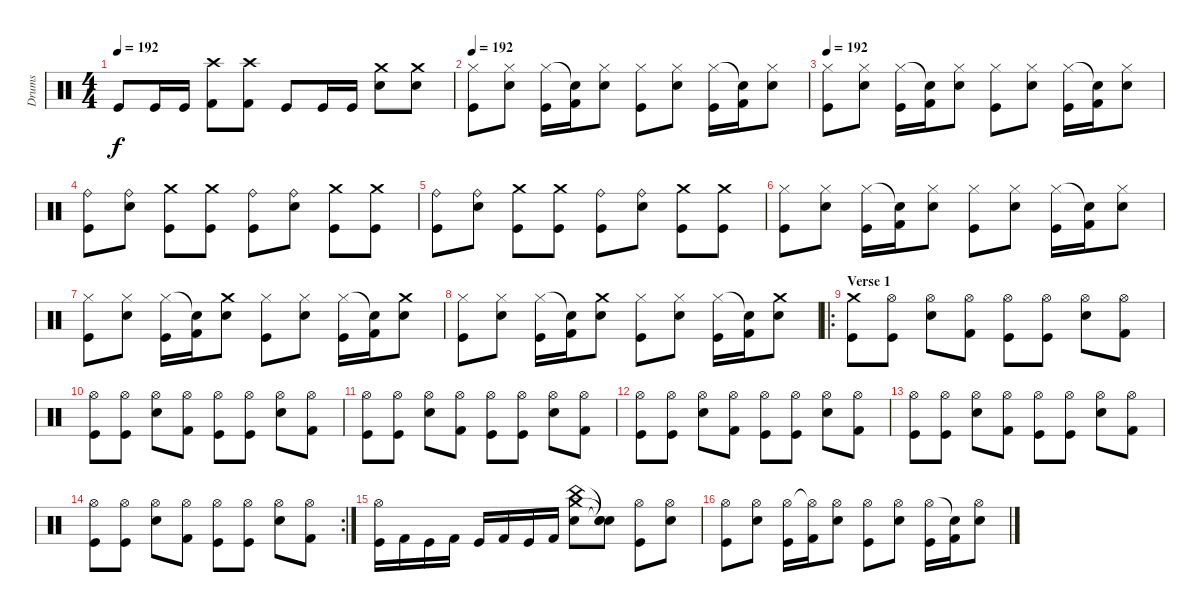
\track ("Drums" "Drums") {instrument percussion}
\staff {score}
\articulation defaults
\ts (4 4)
\tempo 192
\clef neutral
\ks c "Kick (hit)".8{dy f} "Kick (hit)".16 "Kick (hit)".16
("Crash high (hit)" "Kick (hit) 2").8 ("Crash high (hit)" "Kick (hit) 2").8 "Kick (hit)".8 "Kick (hit)".16 "Kick (hit)".16 ("Crash medium (hit)" "Electric Snare (hit)").8 ("Crash medium (hit)" "Electric Snare (hit)").8 |
\tempo 192
("Hi-Hat (closed)" "Kick (hit)").8 ("Hi-Hat (closed)" "Electric Snare (hit)").8 ("Hi-Hat (closed)" "Kick (hit)").16 ("Snare (hit)"{t} "Kick (hit) 2").16 ("Hi-Hat (closed)" "Electric Snare (hit)").8 ("Hi-Hat (closed)" "Kick (hit)").8 ("Hi-Hat (closed)" "Electric Snare (hit)").8 ("Hi-Hat (closed)" "Kick (hit)").16 ("Snare (hit)"{t} "Kick (hit) 2").16 ("Hi-Hat (closed)" "Electric Snare (hit)").8 |
\tempo 192
("Hi-Hat (closed)" "Kick (hit)").8 ("Hi-Hat (closed)" "Electric Snare (hit)").8 ("Hi-Hat (closed)" "Kick (hit)").16 ("Snare (hit)"{t} "Kick (hit) 2").16 ("Hi-Hat (closed)" "Electric Snare (hit)").8 ("Hi-Hat (closed)" "Kick (hit)").8 ("Hi-Hat (closed)" "Electric Snare (hit)").8 ("Hi-Hat (closed)" "Kick (hit)").16 ("Snare (hit)"{t} "Kick (hit) 2").16 ("Hi-Hat (closed)" "Electric Snare (hit)").8 |
("Ride (bell)" "Kick (hit)").8 ("Ride (bell)" "Electric Snare (hit)").8 ("Crash medium (hit)" "Kick (hit)").8 ("Crash medium (hit)" "Kick (hit)").8 ("Ride (bell)" "Kick (hit)").8 ("Ride (bell)" "Electric Snare (hit)").8 ("Crash medium (hit)" "Kick (hit)").8 ("Crash medium (hit)" "Kick (hit)").8 |
("Ride (bell)" "Kick (hit)").8 ("Ride (bell)" "Electric Snare (hit)").8 ("Crash medium (hit)" "Kick (hit)").8 ("Crash medium (hit)" "Kick (hit)").8 ("Ride (bell)" "Kick (hit)").8 ("Ride (bell)" "Electric Snare (hit)").8 ("Crash medium (hit)" "Kick (hit)").8 ("Crash medium (hit)" "Kick (hit)").8 |
("Hi-Hat (closed)" "Kick (hit)").8 ("Hi-Hat (closed)" "Electric Snare (hit)").8 ("Hi-Hat (closed)" "Kick (hit)").16 ("Snare (hit)"{t} "Kick (hit) 2").16 ("Hi-Hat (closed)" "Electric Snare (hit)").8 ("Hi-Hat (closed)" "Kick (hit)").8 ("Hi-Hat (closed)" "Electric Snare (hit)").8 ("Hi-Hat (closed)" "Kick (hit)").16 ("Snare (hit)"{t} "Kick (hit) 2").16 ("Hi-Hat (closed)" "Electric Snare (hit)").8 |
("Hi-Hat (closed)" "Kick (hit)").8 ("Hi-Hat (closed)" "Electric Snare (hit)").8 ("Hi-Hat (closed)" "Kick (hit)").16 ("Snare (hit)"{t} "Kick (hit) 2").16 ("Crash medium (hit)" "Electric Snare (hit)").8 ("Hi-Hat (closed)" "Kick (hit)").8 ("Hi-Hat (closed)" "Electric Snare (hit)").8 ("Hi-Hat (closed)" "Kick (hit)").16 ("Snare (hit)"{t} "Kick (hit) 2").16 ("Crash medium (hit)" "Electric Snare (hit)").8 |
("Hi-Hat (closed)" "Kick (hit)").8 ("Hi-Hat (closed)" "Electric Snare (hit)").8 ("Hi-Hat (closed)" "Kick (hit)").16 ("Snare (hit)"{t} "Kick (hit) 2").16 ("Crash medium (hit)" "Electric Snare (hit)").8 ("Hi-Hat (closed)" "Kick (hit)").8 ("Hi-Hat (closed)" "Electric Snare (hit)").8 ("Hi-Hat (closed)" "Kick (hit)").16 ("Snare (hit)"{t} "Kick (hit) 2").16 ("Crash medium (hit)" "Electric Snare (hit)").8 |
\ro
\section ("" "Verse 1")
("Crash medium (hit)" "Kick (hit)").8 ("Hi-Hat (open)" "Kick (hit)").8 ("Hi-Hat (open)" "Electric Snare (hit)").8 ("Hi-Hat (open)" "Kick (hit) 2").8 ("Hi-Hat (open)" "Kick (hit)").8 ("Hi-Hat (open)" "Kick (hit)").8 ("Hi-Hat (open)" "Electric Snare (hit)").8 ("Hi-Hat (open)" "Kick (hit) 2").8 |
("Hi-Hat (open)" "Kick (hit)").8 ("Hi-Hat (open)" "Kick (hit)").8 ("Hi-Hat (open)" "Electric Snare (hit)").8 ("Hi-Hat (open)" "Kick (hit) 2").8 ("Hi-Hat (open)" "Kick (hit)").8 ("Hi-Hat (open)" "Kick (hit)").8 ("Hi-Hat (open)" "Electric Snare (hit)").8 ("Hi-Hat (open)" "Kick (hit) 2").8 |
("Hi-Hat (open)" "Kick (hit)").8 ("Hi-Hat (open)" "Kick (hit)").8 ("Hi-Hat (open)" "Electric Snare (hit)").8 ("Hi-Hat (open)" "Kick (hit) 2").8 ("Hi-Hat (open)" "Kick (hit)").8 ("Hi-Hat (open)" "Kick (hit)").8 ("Hi-Hat (open)" "Electric Snare (hit)").8 ("Hi-Hat (open)" "Kick (hit) 2").8 |
("Hi-Hat (open)" "Kick (hit)").8 ("Hi-Hat (open)" "Kick (hit)").8 ("Hi-Hat (open)" "Electric Snare (hit)").8 ("Hi-Hat (open)" "Kick (hit) 2").8 ("Hi-Hat (open)" "Kick (hit)").8 ("Hi-Hat (open)" "Kick (hit)").8 ("Hi-Hat (open)" "Electric Snare (hit)").8 ("Hi-Hat (open)" "Kick (hit) 2").8 |
("Hi-Hat (open)" "Kick (hit)").8 ("Hi-Hat (open)" "Kick (hit)").8 ("Hi-Hat (open)" "Electric Snare (hit)").8 ("Hi-Hat (open)" "Kick (hit) 2").8 ("Hi-Hat (open)" "Kick (hit)").8 ("Hi-Hat (open)" "Kick (hit)").8 ("Hi-Hat (open)" "Electric Snare (hit)").8 ("Hi-Hat (open)" "Kick (hit) 2").8 |
\rc 2
("Hi-Hat (open)" "Kick (hit)").8 ("Hi-Hat (open)" "Kick (hit)").8 ("Hi-Hat (open)" "Electric Snare (hit)").8 ("Hi-Hat (open)" "Kick (hit) 2").8 ("Hi-Hat (open)" "Kick (hit)").8 ("Hi-Hat (open)" "Kick (hit)").8 ("Hi-Hat (open)" "Electric Snare (hit)").8 ("Hi-Hat (open)" "Kick (hit) 2").8 |
("Hi-Hat (open)" "Kick (hit)").16 "Kick (hit) 2".16 "Kick (hit)".16 "Kick (hit) 2".16 "Kick (hit)".16 "Kick (hit) 2".16 "Kick (hit)".16 "Kick (hit) 2".16 ("China (hit)" "Crash medium (hit)" "Electric Snare (hit)").8 ("Snare (hit)"{t} "Snare (hit)"{t} "Snare (hit)"{t}).8 ("Hi-Hat (open)" "Kick (hit)").8 ("Hi-Hat (open)" "Electric Snare (hit)").8 |
("Hi-Hat (open)" "Kick (hit)").8 ("Hi-Hat (open)" "Electric Snare (hit)").8 ("Hi-Hat (open)" "Kick (hit)").16 ("Hi-Hat (open)"{t} "Kick (hit) 2").16 ("Hi-Hat (open)" "Electric Snare (hit)").8 ("Hi-Hat (open)" "Kick (hit)").8 ("Hi-Hat (open)" "Electric Snare (hit)").8 ("Hi-Hat (open)" "Kick (hit)").16 ("Snare (hit)"{t} "Kick (hit) 2").16 ("Hi-Hat (open)" "Electric Snare (hit)").8
